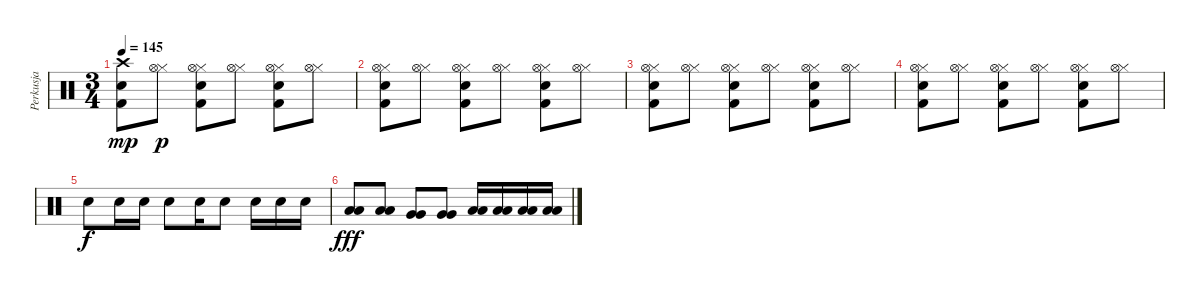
\track ("Perkusja" "Perkusja") {instrument percussion}
\staff {score}
\articulation defaults
\ts (3 4)
\tempo 145
\clef neutral
\ks c
("Kick (hit) 2" "Electric Snare (hit)" "Crash high (hit)").8{dy mp} ("Hi-Hat (closed)" "Hi-Hat (open)").8{dy p} ("Kick (hit) 2" "Electric Snare (hit)" "Hi-Hat (closed)" "Hi-Hat (open)").8 ("Hi-Hat (closed)" "Hi-Hat (open)").8 ("Kick (hit) 2" "Electric Snare (hit)" "Hi-Hat (closed)" "Hi-Hat (open)").8 ("Hi-Hat (closed)" "Hi-Hat (open)").8 |
("Kick (hit) 2" "Electric Snare (hit)" "Hi-Hat (closed)" "Hi-Hat (open)").8 ("Hi-Hat (closed)" "Hi-Hat (open)").8 ("Kick (hit) 2" "Electric Snare (hit)" "Hi-Hat (closed)" "Hi-Hat (open)").8 ("Hi-Hat (closed)" "Hi-Hat (open)").8 ("Kick (hit) 2" "Electric Snare (hit)" "Hi-Hat (closed)" "Hi-Hat (open)").8 ("Hi-Hat (closed)" "Hi-Hat (open)").8 |
("Kick (hit) 2" "Electric Snare (hit)" "Hi-Hat (closed)" "Hi-Hat (open)").8 ("Hi-Hat (closed)" "Hi-Hat (open)").8 ("Kick (hit) 2" "Electric Snare (hit)" "Hi-Hat (closed)" "Hi-Hat (open)").8 ("Hi-Hat (closed)" "Hi-Hat (open)").8 ("Kick (hit) 2" "Electric Snare (hit)" "Hi-Hat (closed)" "Hi-Hat (open)").8 ("Hi-Hat (closed)" "Hi-Hat (open)").8 |
("Kick (hit) 2" "Electric Snare (hit)" "Hi-Hat (closed)" "Hi-Hat (open)").8 ("Hi-Hat (closed)" "Hi-Hat (open)").8 ("Kick (hit) 2" "Electric Snare (hit)" "Hi-Hat (closed)" "Hi-Hat (open)").8 ("Hi-Hat (closed)" "Hi-Hat (open)").8 ("Kick (hit) 2" "Electric Snare (hit)" "Hi-Hat (closed)" "Hi-Hat (open)").8 ("Hi-Hat (closed)" "Hi-Hat (open)").8 |
"Electric Snare (hit)".8{dy f} "Electric Snare (hit)".16 "Electric Snare (hit)".16 "Electric Snare (hit)".8 "Electric Snare (hit)".16 "Electric Snare (hit)".8 "Electric Snare (hit)".16 "Electric Snare (hit)".16 "Electric Snare (hit)".16 |
("Low Tom (hit)" "Low Tom (hit)").8{dy fff} ("Low Tom (hit)" "Low Tom (hit)").8 ("Very Low Tom (hit)" "Very Low Tom (hit)").8 ("Very Low Tom (hit)" "Very Low Tom (hit)").8 ("Low Floor Tom (hit)" "Low Floor Tom (hit)").16 ("Low Floor Tom (hit)" "Low Floor Tom (hit)").16 ("Low Floor Tom (hit)" "Low Floor Tom (hit)").16 ("Low Floor Tom (hit)" "Low Floor Tom (hit)").16
